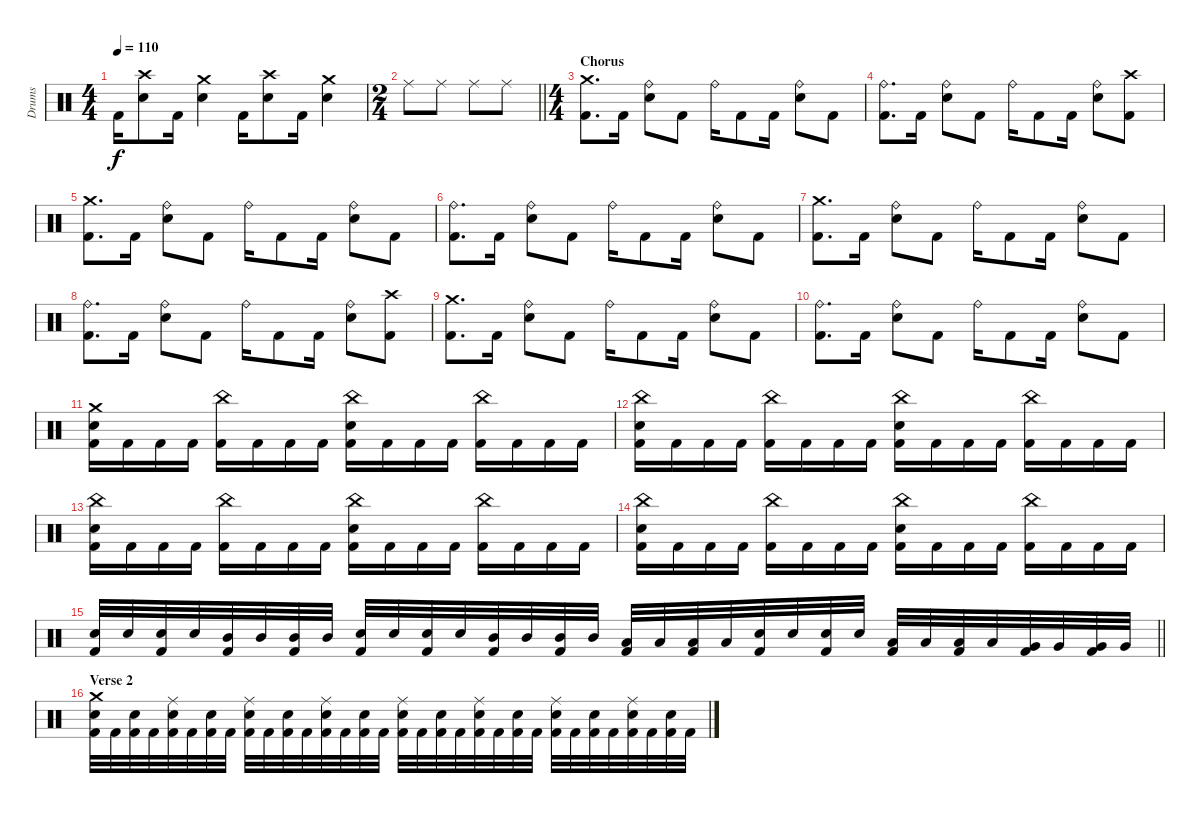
\track ("Drums" "Drums") {instrument percussion}
\staff {score}
\articulation defaults
\ts (4 4)
\tempo 110
\clef neutral
\ks c "Kick (hit) 2".16{dy f}
("Snare (hit) 2" "Crash high (hit)").8 "Kick (hit) 2".16 ("Snare (hit) 2" "Crash medium (hit)").4 "Kick (hit) 2".16 ("Snare (hit) 2" "Crash high (hit)").8 "Kick (hit) 2".16 ("Snare (hit) 2" "Crash medium (hit)").4 |
\ts (2 4)
\barLineRight lightlight "Ride (middle)".8 "Ride (middle)".8 "Ride (middle)".8 "Ride (middle)".8
|
\ts (4 4)
\section ("" "Chorus")
("Kick (hit) 2" "Crash medium (hit)").8{d} "Kick (hit) 2".16 ("Snare (hit) 2" "Ride (bell)").8 "Kick (hit) 2".8 "Ride (bell)".16 "Kick (hit) 2".8 "Kick (hit) 2".16 ("Snare (hit) 2" "Ride (bell)").8 "Kick (hit) 2".8 |
("Kick (hit) 2" "Ride (bell)").8{d} "Kick (hit) 2".16 ("Snare (hit) 2" "Ride (bell)").8 "Kick (hit) 2".8 "Ride (bell)".16 "Kick (hit) 2".8 "Kick (hit) 2".16 ("Snare (hit) 2" "Ride (bell)").8 ("Kick (hit) 2" "Crash high (hit)").8 |
("Kick (hit) 2" "Crash medium (hit)").8{d} "Kick (hit) 2".16 ("Snare (hit) 2" "Ride (bell)").8 "Kick (hit) 2".8 "Ride (bell)".16 "Kick (hit) 2".8 "Kick (hit) 2".16 ("Snare (hit) 2" "Ride (bell)").8 "Kick (hit) 2".8 |
("Kick (hit) 2" "Ride (bell)").8{d} "Kick (hit) 2".16 ("Snare (hit) 2" "Ride (bell)").8 "Kick (hit) 2".8 "Ride (bell)".16 "Kick (hit) 2".8 "Kick (hit) 2".16 ("Snare (hit) 2" "Ride (bell)").8 "Kick (hit) 2".8 |
("Kick (hit) 2" "Crash medium (hit)").8{d} "Kick (hit) 2".16 ("Snare (hit) 2" "Ride (bell)").8 "Kick (hit) 2".8 "Ride (bell)".16 "Kick (hit) 2".8 "Kick (hit) 2".16 ("Snare (hit) 2" "Ride (bell)").8 "Kick (hit) 2".8 |
("Kick (hit) 2" "Ride (bell)").8{d} "Kick (hit) 2".16 ("Snare (hit) 2" "Ride (bell)").8 "Kick (hit) 2".8 "Ride (bell)".16 "Kick (hit) 2".8 "Kick (hit) 2".16 ("Snare (hit) 2" "Ride (bell)").8 ("Kick (hit) 2" "Crash high (hit)").8 |
("Kick (hit) 2" "Crash medium (hit)").8{d} "Kick (hit) 2".16 ("Snare (hit) 2" "Ride (bell)").8 "Kick (hit) 2".8 "Ride (bell)".16 "Kick (hit) 2".8 "Kick (hit) 2".16 ("Snare (hit) 2" "Ride (bell)").8 "Kick (hit) 2".8 |
("Kick (hit) 2" "Ride (bell)").8{d} "Kick (hit) 2".16 ("Snare (hit) 2" "Ride (bell)").8 "Kick (hit) 2".8 "Ride (bell)".16 "Kick (hit) 2".8 "Kick (hit) 2".16 ("Snare (hit) 2" "Ride (bell)").8 "Kick (hit) 2".8 |
("Kick (hit) 2" "Snare (hit) 2" "Crash medium (hit)").16 "Kick (hit) 2".16 "Kick (hit) 2".16 "Kick (hit) 2".16 ("Kick (hit) 2" "China (hit)").16 "Kick (hit) 2".16 "Kick (hit) 2".16 "Kick (hit) 2".16 ("Kick (hit) 2" "Snare (hit) 2" "China (hit)").16 "Kick (hit) 2".16 "Kick (hit) 2".16 "Kick (hit) 2".16 ("Kick (hit) 2" "China (hit)").16 "Kick (hit) 2".16 "Kick (hit) 2".16 "Kick (hit) 2".16 |
("Kick (hit) 2" "Snare (hit) 2" "China (hit)").16 "Kick (hit) 2".16 "Kick (hit) 2".16 "Kick (hit) 2".16 ("Kick (hit) 2" "China (hit)").16 "Kick (hit) 2".16 "Kick (hit) 2".16 "Kick (hit) 2".16 ("Kick (hit) 2" "Snare (hit) 2" "China (hit)").16 "Kick (hit) 2".16 "Kick (hit) 2".16 "Kick (hit) 2".16 ("Kick (hit) 2" "China (hit)").16 "Kick (hit) 2".16 "Kick (hit) 2".16 "Kick (hit) 2".16 |
("Kick (hit) 2" "Snare (hit) 2" "China (hit)").16 "Kick (hit) 2".16 "Kick (hit) 2".16 "Kick (hit) 2".16 ("Kick (hit) 2" "China (hit)").16 "Kick (hit) 2".16 "Kick (hit) 2".16 "Kick (hit) 2".16 ("Kick (hit) 2" "Snare (hit) 2" "China (hit)").16 "Kick (hit) 2".16 "Kick (hit) 2".16 "Kick (hit) 2".16 ("Kick (hit) 2" "China (hit)").16 "Kick (hit) 2".16 "Kick (hit) 2".16 "Kick (hit) 2".16 |
("Kick (hit) 2" "Snare (hit) 2" "China (hit)").16 "Kick (hit) 2".16 "Kick (hit) 2".16 "Kick (hit) 2".16 ("Kick (hit) 2" "China (hit)").16 "Kick (hit) 2".16 "Kick (hit) 2".16 "Kick (hit) 2".16 ("Kick (hit) 2" "Snare (hit) 2" "China (hit)").16 "Kick (hit) 2".16 "Kick (hit) 2".16 "Kick (hit) 2".16 ("Kick (hit) 2" "China (hit)").16 "Kick (hit) 2".16 "Kick (hit) 2".16 "Kick (hit) 2".16 |
\barLineRight lightlight
("Kick (hit) 2" "Snare (hit) 2").32 "Snare (hit) 2".32 ("Kick (hit) 2" "Snare (hit) 2").32 "Snare (hit) 2".32 ("Kick (hit) 2" "Mid Tom (hit)").32 "Mid Tom (hit)".32 ("Kick (hit) 2" "Mid Tom (hit)").32 "Mid Tom (hit)".32 ("Kick (hit) 2" "Snare (hit) 2").32 "Snare (hit) 2".32 ("Kick (hit) 2" "Snare (hit) 2").32 "Snare (hit) 2".32 ("Kick (hit) 2" "Mid Tom (hit)").32 "Mid Tom (hit)".32 ("Kick (hit) 2" "Mid Tom (hit)").32 "Mid Tom (hit)".32 ("Kick (hit) 2" "Low Tom (hit)").32 "Low Tom (hit)".32 ("Kick (hit) 2" "Low Tom (hit)").32 "Low Tom (hit)".32 ("Kick (hit) 2" "Snare (hit) 2").32 "Snare (hit) 2".32 ("Kick (hit) 2" "Snare (hit) 2").32 "Snare (hit) 2".32 ("Kick (hit) 2" "Low Tom (hit)").32 "Low Tom (hit)".32 ("Kick (hit) 2" "Low Tom (hit)").32 "Low Tom (hit)".32 ("Kick (hit) 2" "Very Low Tom (hit)").32 "Very Low Tom (hit)".32 ("Kick (hit) 2" "Very Low Tom (hit)").32 "Very Low Tom (hit)".32 |
\section ("" "Verse 2")
("Kick (hit) 2" "Snare (hit) 2" "Crash medium (hit)").32 "Kick (hit) 2".32 ("Kick (hit) 2" "Snare (hit) 2").32 "Kick (hit) 2".32 ("Kick (hit) 2" "Snare (hit) 2" "Ride (middle)").32 "Kick (hit) 2".32 ("Kick (hit) 2" "Snare (hit) 2").32 "Kick (hit) 2".32 ("Kick (hit) 2" "Snare (hit) 2" "Ride (middle)").32 "Kick (hit) 2".32 ("Kick (hit) 2" "Snare (hit) 2").32 "Kick (hit) 2".32 ("Kick (hit) 2" "Snare (hit) 2" "Ride (middle)").32 "Kick (hit) 2".32 ("Kick (hit) 2" "Snare (hit) 2").32 "Kick (hit) 2".32 ("Kick (hit) 2" "Snare (hit) 2" "Ride (middle)").32 "Kick (hit) 2".32 ("Kick (hit) 2" "Snare (hit) 2").32 "Kick (hit) 2".32 ("Kick (hit) 2" "Snare (hit) 2" "Ride (middle)").32 "Kick (hit) 2".32 ("Kick (hit) 2" "Snare (hit) 2").32 "Kick (hit) 2".32 ("Kick (hit) 2" "Snare (hit) 2" "Ride (middle)").32 "Kick (hit) 2".32 ("Kick (hit) 2" "Snare (hit) 2").32 "Kick (hit) 2".32 ("Kick (hit) 2" "Snare (hit) 2" "Ride (middle)").32 "Kick (hit) 2".32 ("Kick (hit) 2" "Snare (hit) 2").32 "Kick (hit) 2".32
